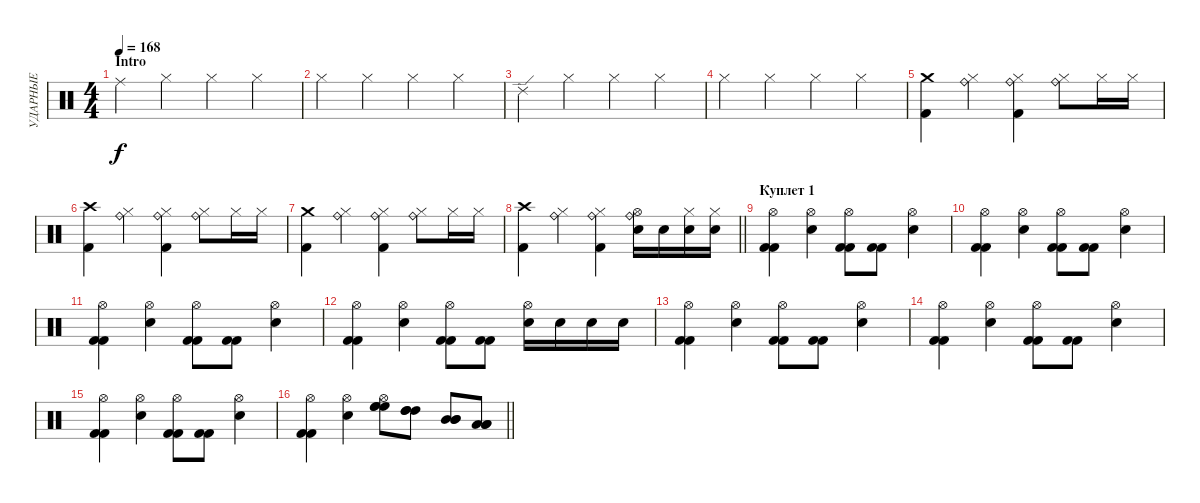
\track ("УДАРНЫЕ" "УДАРНЫЕ") {instrument percussion}
\staff {score}
\articulation defaults
\ts (4 4)
\section ("" "Intro")
\tempo 168
\clef neutral
\ks c "Ride (middle)".4{dy f} "Hi-Hat (closed)".4 "Hi-Hat (closed)".4 "Hi-Hat (closed)".4
|
"Hi-Hat (closed)".4 "Hi-Hat (closed)".4 "Hi-Hat (closed)".4 "Hi-Hat (closed)".4 |
"Ride (edge) 2".4 "Hi-Hat (closed)".4 "Hi-Hat (closed)".4 "Hi-Hat (closed)".4 |
"Hi-Hat (closed)".4 "Hi-Hat (closed)".4 "Hi-Hat (closed)".4 "Hi-Hat (closed)".4 |
("Kick (hit) 2" "Crash medium (hit)").4 ("Hi-Hat (closed)" "Ride (bell)").4 ("Kick (hit) 2" "Hi-Hat (closed)" "Ride (bell)").4 ("Hi-Hat (closed)" "Ride (bell)").8 "Hi-Hat (closed)".16 "Hi-Hat (closed)".16 |
("Kick (hit) 2" "Crash high (hit)").4 ("Hi-Hat (closed)" "Ride (bell)").4 ("Kick (hit) 2" "Hi-Hat (closed)" "Ride (bell)").4 ("Hi-Hat (closed)" "Ride (bell)").8 "Hi-Hat (closed)".16 "Hi-Hat (closed)".16 |
("Kick (hit) 2" "Crash medium (hit)").4 ("Hi-Hat (closed)" "Ride (bell)").4 ("Kick (hit) 2" "Hi-Hat (closed)" "Ride (bell)").4 ("Hi-Hat (closed)" "Ride (bell)").8 "Hi-Hat (closed)".16 "Hi-Hat (closed)".16 |
\barLineRight lightlight
("Kick (hit) 2" "Crash high (hit)").4 ("Hi-Hat (closed)" "Ride (bell)").4 ("Kick (hit) 2" "Hi-Hat (closed)" "Ride (bell)").4 ("Hi-Hat (open)" "Ride (bell)" "Snare (hit) 2").16 "Snare (hit) 2".16 ("Hi-Hat (closed)" "Snare (hit) 2").16 ("Hi-Hat (closed)" "Snare (hit) 2").16 |
\section ("" "Куплет 1")
("Hi-Hat (open)" "Kick (hit) 2" "Kick (hit) 2").4 ("Hi-Hat (open)" "Snare (hit) 2").4 ("Hi-Hat (open)" "Kick (hit) 2" "Kick (hit) 2").8 ("Kick (hit) 2" "Kick (hit) 2").8 ("Hi-Hat (open)" "Snare (hit) 2").4 |
("Hi-Hat (open)" "Kick (hit) 2" "Kick (hit) 2").4 ("Hi-Hat (open)" "Snare (hit) 2").4 ("Hi-Hat (open)" "Kick (hit) 2" "Kick (hit) 2").8 ("Kick (hit) 2" "Kick (hit) 2").8 ("Hi-Hat (open)" "Snare (hit) 2").4 |
("Hi-Hat (open)" "Kick (hit) 2" "Kick (hit) 2").4 ("Hi-Hat (open)" "Snare (hit) 2").4 ("Hi-Hat (open)" "Kick (hit) 2" "Kick (hit) 2").8 ("Kick (hit) 2" "Kick (hit) 2").8 ("Hi-Hat (open)" "Snare (hit) 2").4 |
("Hi-Hat (open)" "Kick (hit) 2" "Kick (hit) 2").4 ("Hi-Hat (open)" "Snare (hit) 2").4 ("Hi-Hat (open)" "Kick (hit) 2" "Kick (hit) 2").8 ("Kick (hit) 2" "Kick (hit) 2").8 ("Hi-Hat (open)" "Snare (hit) 2").16 "Snare (hit) 2".16 "Snare (hit) 2".16 "Snare (hit) 2".16 |
("Hi-Hat (open)" "Kick (hit) 2" "Kick (hit) 2").4 ("Hi-Hat (open)" "Snare (hit) 2").4 ("Hi-Hat (open)" "Kick (hit) 2" "Kick (hit) 2").8 ("Kick (hit) 2" "Kick (hit) 2").8 ("Hi-Hat (open)" "Snare (hit) 2").4 |
("Hi-Hat (open)" "Kick (hit) 2" "Kick (hit) 2").4 ("Hi-Hat (open)" "Snare (hit) 2").4 ("Hi-Hat (open)" "Kick (hit) 2" "Kick (hit) 2").8 ("Kick (hit) 2" "Kick (hit) 2").8 ("Hi-Hat (open)" "Snare (hit) 2").4 |
("Hi-Hat (open)" "Kick (hit) 2" "Kick (hit) 2").4 ("Hi-Hat (open)" "Snare (hit) 2").4 ("Hi-Hat (open)" "Kick (hit) 2" "Kick (hit) 2").8 ("Kick (hit) 2" "Kick (hit) 2").8 ("Hi-Hat (open)" "Snare (hit) 2").4 |
\barLineRight lightlight
("Hi-Hat (open)" "Kick (hit) 2" "Kick (hit) 2").4 ("Hi-Hat (open)" "Snare (hit) 2").4 ("Hi-Hat (open)" "High Floor Tom (hit)" "High Floor Tom (hit)" "High Floor Tom (hit)").8 ("High Tom (hit)" "High Tom (hit)" "High Tom (hit)").8 ("Mid Tom (hit)" "Mid Tom (hit)" "Mid Tom (hit)").8 ("Low Tom (hit)" "Low Tom (hit)" "Low Tom (hit)").8
